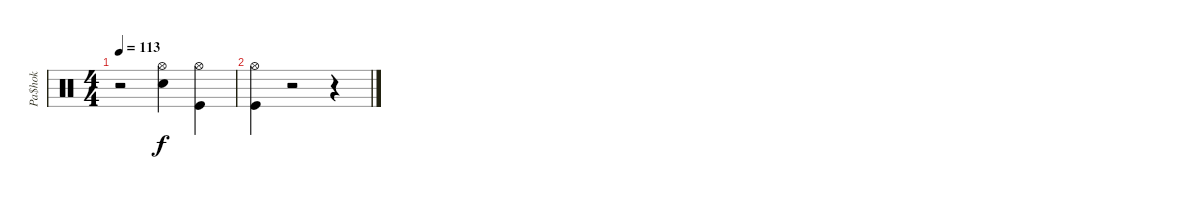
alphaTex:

\track ("Pa$hok" "Pa$hok") {instrument percussion}
\staff {score}
\articulation defaults
\ts (4 4)
\tempo 113
\clef neutral
\ks c
r.2{dy f} ("Hi-Hat (open)" "Snare (hit) 2").4 ("Hi-Hat (open)" "Kick (hit)").4 |
("Hi-Hat (open)" "Kick (hit)").4 r.2 r.4
